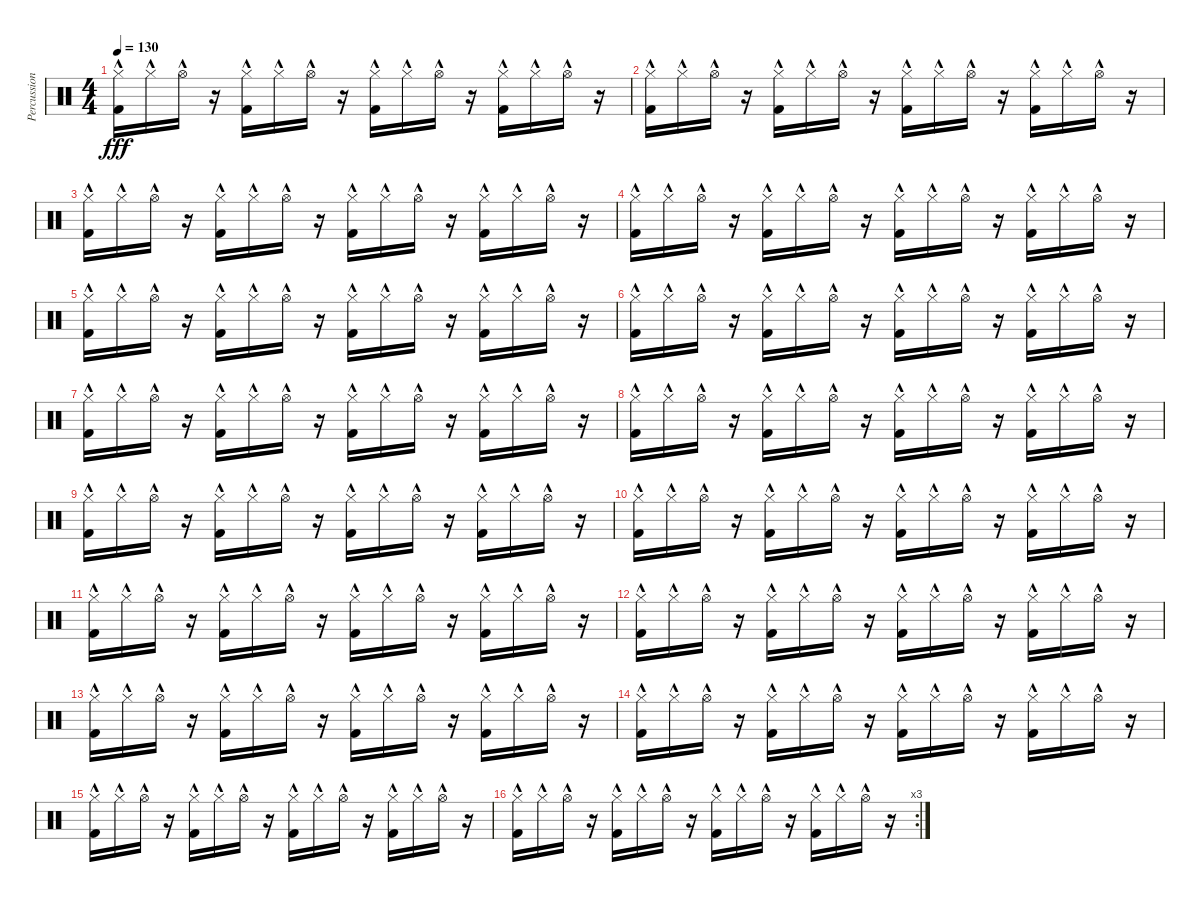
\track ("Percussion" "Percussion") {instrument percussion bank 118}
\staff {score}
\articulation defaults
\ts (4 4)
\tempo 130
\clef neutral
\ks c
("Hi-Hat (closed)"{hac} "Kick (hit) 2"{hac}).16{dy fff} "Hi-Hat (closed)"{hac}.16 "Hi-Hat (open)"{hac}.16 r.16 ("Hi-Hat (closed)"{hac} "Kick (hit) 2"{hac}).16 "Hi-Hat (closed)"{hac}.16 "Hi-Hat (open)"{hac}.16 r.16 ("Hi-Hat (closed)"{hac} "Kick (hit) 2"{hac}).16 "Hi-Hat (closed)"{hac}.16 "Hi-Hat (open)"{hac}.16 r.16 ("Hi-Hat (closed)"{hac} "Kick (hit) 2"{hac}).16 "Hi-Hat (closed)"{hac}.16 "Hi-Hat (open)"{hac}.16 r.16 |
("Hi-Hat (closed)"{hac} "Kick (hit) 2"{hac}).16 "Hi-Hat (closed)"{hac}.16 "Hi-Hat (open)"{hac}.16 r.16 ("Hi-Hat (closed)"{hac} "Kick (hit) 2"{hac}).16 "Hi-Hat (closed)"{hac}.16 "Hi-Hat (open)"{hac}.16 r.16 ("Hi-Hat (closed)"{hac} "Kick (hit) 2"{hac}).16 "Hi-Hat (closed)"{hac}.16 "Hi-Hat (open)"{hac}.16 r.16 ("Hi-Hat (closed)"{hac} "Kick (hit) 2"{hac}).16 "Hi-Hat (closed)"{hac}.16 "Hi-Hat (open)"{hac}.16 r.16 |
("Hi-Hat (closed)"{hac} "Kick (hit) 2"{hac}).16 "Hi-Hat (closed)"{hac}.16 "Hi-Hat (open)"{hac}.16 r.16 ("Hi-Hat (closed)"{hac} "Kick (hit) 2"{hac}).16 "Hi-Hat (closed)"{hac}.16 "Hi-Hat (open)"{hac}.16 r.16 ("Hi-Hat (closed)"{hac} "Kick (hit) 2"{hac}).16 "Hi-Hat (closed)"{hac}.16 "Hi-Hat (open)"{hac}.16 r.16 ("Hi-Hat (closed)"{hac} "Kick (hit) 2"{hac}).16 "Hi-Hat (closed)"{hac}.16 "Hi-Hat (open)"{hac}.16 r.16 |
("Hi-Hat (closed)"{hac} "Kick (hit) 2"{hac}).16 "Hi-Hat (closed)"{hac}.16 "Hi-Hat (open)"{hac}.16 r.16 ("Hi-Hat (closed)"{hac} "Kick (hit) 2"{hac}).16 "Hi-Hat (closed)"{hac}.16 "Hi-Hat (open)"{hac}.16 r.16 ("Hi-Hat (closed)"{hac} "Kick (hit) 2"{hac}).16 "Hi-Hat (closed)"{hac}.16 "Hi-Hat (open)"{hac}.16 r.16 ("Hi-Hat (closed)"{hac} "Kick (hit) 2"{hac}).16 "Hi-Hat (closed)"{hac}.16 "Hi-Hat (open)"{hac}.16 r.16 |
("Hi-Hat (closed)"{hac} "Kick (hit) 2"{hac}).16 "Hi-Hat (closed)"{hac}.16 "Hi-Hat (open)"{hac}.16 r.16 ("Hi-Hat (closed)"{hac} "Kick (hit) 2"{hac}).16 "Hi-Hat (closed)"{hac}.16 "Hi-Hat (open)"{hac}.16 r.16 ("Hi-Hat (closed)"{hac} "Kick (hit) 2"{hac}).16 "Hi-Hat (closed)"{hac}.16 "Hi-Hat (open)"{hac}.16 r.16 ("Hi-Hat (closed)"{hac} "Kick (hit) 2"{hac}).16 "Hi-Hat (closed)"{hac}.16 "Hi-Hat (open)"{hac}.16 r.16 |
("Hi-Hat (closed)"{hac} "Kick (hit) 2"{hac}).16 "Hi-Hat (closed)"{hac}.16 "Hi-Hat (open)"{hac}.16 r.16 ("Hi-Hat (closed)"{hac} "Kick (hit) 2"{hac}).16 "Hi-Hat (closed)"{hac}.16 "Hi-Hat (open)"{hac}.16 r.16 ("Hi-Hat (closed)"{hac} "Kick (hit) 2"{hac}).16 "Hi-Hat (closed)"{hac}.16 "Hi-Hat (open)"{hac}.16 r.16 ("Hi-Hat (closed)"{hac} "Kick (hit) 2"{hac}).16 "Hi-Hat (closed)"{hac}.16 "Hi-Hat (open)"{hac}.16 r.16 |
("Hi-Hat (closed)"{hac} "Kick (hit) 2"{hac}).16 "Hi-Hat (closed)"{hac}.16 "Hi-Hat (open)"{hac}.16 r.16 ("Hi-Hat (closed)"{hac} "Kick (hit) 2"{hac}).16 "Hi-Hat (closed)"{hac}.16 "Hi-Hat (open)"{hac}.16 r.16 ("Hi-Hat (closed)"{hac} "Kick (hit) 2"{hac}).16 "Hi-Hat (closed)"{hac}.16 "Hi-Hat (open)"{hac}.16 r.16 ("Hi-Hat (closed)"{hac} "Kick (hit) 2"{hac}).16 "Hi-Hat (closed)"{hac}.16 "Hi-Hat (open)"{hac}.16 r.16 |
("Hi-Hat (closed)"{hac} "Kick (hit) 2"{hac}).16 "Hi-Hat (closed)"{hac}.16 "Hi-Hat (open)"{hac}.16 r.16 ("Hi-Hat (closed)"{hac} "Kick (hit) 2"{hac}).16 "Hi-Hat (closed)"{hac}.16 "Hi-Hat (open)"{hac}.16 r.16 ("Hi-Hat (closed)"{hac} "Kick (hit) 2"{hac}).16 "Hi-Hat (closed)"{hac}.16 "Hi-Hat (open)"{hac}.16 r.16 ("Hi-Hat (closed)"{hac} "Kick (hit) 2"{hac}).16 "Hi-Hat (closed)"{hac}.16 "Hi-Hat (open)"{hac}.16 r.16 |
("Hi-Hat (closed)"{hac} "Kick (hit) 2"{hac}).16 "Hi-Hat (closed)"{hac}.16 "Hi-Hat (open)"{hac}.16 r.16 ("Hi-Hat (closed)"{hac} "Kick (hit) 2"{hac}).16 "Hi-Hat (closed)"{hac}.16 "Hi-Hat (open)"{hac}.16 r.16 ("Hi-Hat (closed)"{hac} "Kick (hit) 2"{hac}).16 "Hi-Hat (closed)"{hac}.16 "Hi-Hat (open)"{hac}.16 r.16 ("Hi-Hat (closed)"{hac} "Kick (hit) 2"{hac}).16 "Hi-Hat (closed)"{hac}.16 "Hi-Hat (open)"{hac}.16 r.16 |
("Hi-Hat (closed)"{hac} "Kick (hit) 2"{hac}).16 "Hi-Hat (closed)"{hac}.16 "Hi-Hat (open)"{hac}.16 r.16 ("Hi-Hat (closed)"{hac} "Kick (hit) 2"{hac}).16 "Hi-Hat (closed)"{hac}.16 "Hi-Hat (open)"{hac}.16 r.16 ("Hi-Hat (closed)"{hac} "Kick (hit) 2"{hac}).16 "Hi-Hat (closed)"{hac}.16 "Hi-Hat (open)"{hac}.16 r.16 ("Hi-Hat (closed)"{hac} "Kick (hit) 2"{hac}).16 "Hi-Hat (closed)"{hac}.16 "Hi-Hat (open)"{hac}.16 r.16 |
("Hi-Hat (closed)"{hac} "Kick (hit) 2"{hac}).16 "Hi-Hat (closed)"{hac}.16 "Hi-Hat (open)"{hac}.16 r.16 ("Hi-Hat (closed)"{hac} "Kick (hit) 2"{hac}).16 "Hi-Hat (closed)"{hac}.16 "Hi-Hat (open)"{hac}.16 r.16 ("Hi-Hat (closed)"{hac} "Kick (hit) 2"{hac}).16 "Hi-Hat (closed)"{hac}.16 "Hi-Hat (open)"{hac}.16 r.16 ("Hi-Hat (closed)"{hac} "Kick (hit) 2"{hac}).16 "Hi-Hat (closed)"{hac}.16 "Hi-Hat (open)"{hac}.16 r.16 |
("Hi-Hat (closed)"{hac} "Kick (hit) 2"{hac}).16 "Hi-Hat (closed)"{hac}.16 "Hi-Hat (open)"{hac}.16 r.16 ("Hi-Hat (closed)"{hac} "Kick (hit) 2"{hac}).16 "Hi-Hat (closed)"{hac}.16 "Hi-Hat (open)"{hac}.16 r.16 ("Hi-Hat (closed)"{hac} "Kick (hit) 2"{hac}).16 "Hi-Hat (closed)"{hac}.16 "Hi-Hat (open)"{hac}.16 r.16 ("Hi-Hat (closed)"{hac} "Kick (hit) 2"{hac}).16 "Hi-Hat (closed)"{hac}.16 "Hi-Hat (open)"{hac}.16 r.16 |
("Hi-Hat (closed)"{hac} "Kick (hit) 2"{hac}).16 "Hi-Hat (closed)"{hac}.16 "Hi-Hat (open)"{hac}.16 r.16 ("Hi-Hat (closed)"{hac} "Kick (hit) 2"{hac}).16 "Hi-Hat (closed)"{hac}.16 "Hi-Hat (open)"{hac}.16 r.16 ("Hi-Hat (closed)"{hac} "Kick (hit) 2"{hac}).16 "Hi-Hat (closed)"{hac}.16 "Hi-Hat (open)"{hac}.16 r.16 ("Hi-Hat (closed)"{hac} "Kick (hit) 2"{hac}).16 "Hi-Hat (closed)"{hac}.16 "Hi-Hat (open)"{hac}.16 r.16 |
("Hi-Hat (closed)"{hac} "Kick (hit) 2"{hac}).16 "Hi-Hat (closed)"{hac}.16 "Hi-Hat (open)"{hac}.16 r.16 ("Hi-Hat (closed)"{hac} "Kick (hit) 2"{hac}).16 "Hi-Hat (closed)"{hac}.16 "Hi-Hat (open)"{hac}.16 r.16 ("Hi-Hat (closed)"{hac} "Kick (hit) 2"{hac}).16 "Hi-Hat (closed)"{hac}.16 "Hi-Hat (open)"{hac}.16 r.16 ("Hi-Hat (closed)"{hac} "Kick (hit) 2"{hac}).16 "Hi-Hat (closed)"{hac}.16 "Hi-Hat (open)"{hac}.16 r.16 |
("Hi-Hat (closed)"{hac} "Kick (hit) 2"{hac}).16 "Hi-Hat (closed)"{hac}.16 "Hi-Hat (open)"{hac}.16 r.16 ("Hi-Hat (closed)"{hac} "Kick (hit) 2"{hac}).16 "Hi-Hat (closed)"{hac}.16 "Hi-Hat (open)"{hac}.16 r.16 ("Hi-Hat (closed)"{hac} "Kick (hit) 2"{hac}).16 "Hi-Hat (closed)"{hac}.16 "Hi-Hat (open)"{hac}.16 r.16 ("Hi-Hat (closed)"{hac} "Kick (hit) 2"{hac}).16 "Hi-Hat (closed)"{hac}.16 "Hi-Hat (open)"{hac}.16 r.16 |
\rc 3
("Hi-Hat (closed)"{hac} "Kick (hit) 2"{hac}).16 "Hi-Hat (closed)"{hac}.16 "Hi-Hat (open)"{hac}.16 r.16 ("Hi-Hat (closed)"{hac} "Kick (hit) 2"{hac}).16 "Hi-Hat (closed)"{hac}.16 "Hi-Hat (open)"{hac}.16 r.16 ("Hi-Hat (closed)"{hac} "Kick (hit) 2"{hac}).16 "Hi-Hat (closed)"{hac}.16 "Hi-Hat (open)"{hac}.16 r.16 ("Hi-Hat (closed)"{hac} "Kick (hit) 2"{hac}).16 "Hi-Hat (closed)"{hac}.16 "Hi-Hat (open)"{hac}.16 r.16
